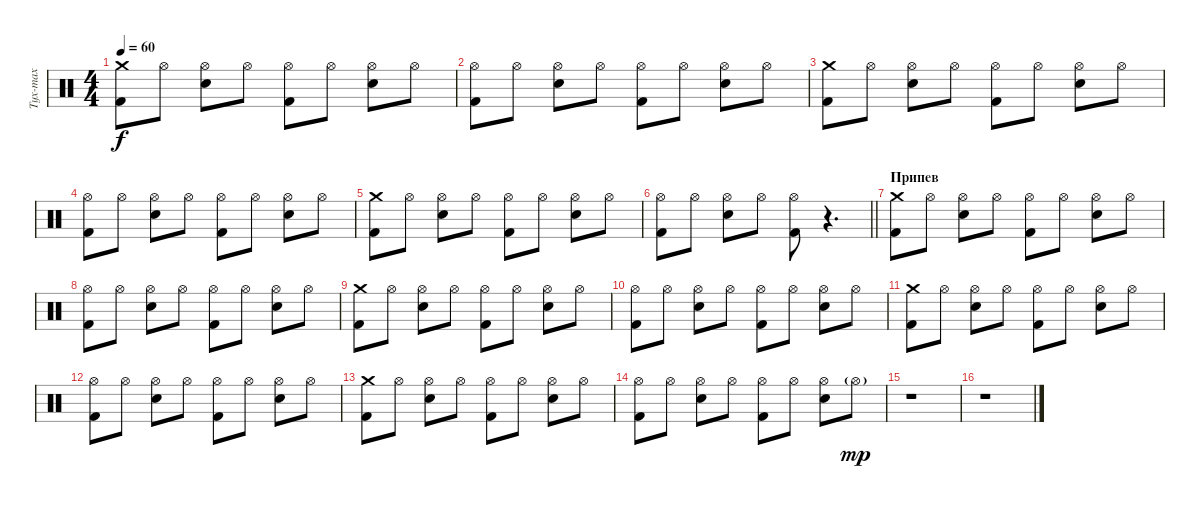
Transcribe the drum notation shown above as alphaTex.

\track ("Тух-тах" "Тух-тах") {instrument percussion}
\staff {score}
\articulation defaults
\ts (4 4)
\tempo 60
\clef neutral
\ks c
("Crash medium (hit)" "Kick (hit) 2").8{dy f} "Hi-Hat (open)".8 ("Hi-Hat (open)" "Snare (hit) 2").8 "Hi-Hat (open)".8 ("Hi-Hat (open)" "Kick (hit) 2").8 "Hi-Hat (open)".8 ("Hi-Hat (open)" "Snare (hit) 2").8 "Hi-Hat (open)".8 |
("Hi-Hat (open)" "Kick (hit) 2").8 "Hi-Hat (open)".8 ("Hi-Hat (open)" "Snare (hit) 2").8 "Hi-Hat (open)".8 ("Hi-Hat (open)" "Kick (hit) 2").8 "Hi-Hat (open)".8 ("Hi-Hat (open)" "Snare (hit) 2").8 "Hi-Hat (open)".8 |
("Crash medium (hit)" "Kick (hit) 2").8 "Hi-Hat (open)".8 ("Hi-Hat (open)" "Snare (hit) 2").8 "Hi-Hat (open)".8 ("Hi-Hat (open)" "Kick (hit) 2").8 "Hi-Hat (open)".8 ("Hi-Hat (open)" "Snare (hit) 2").8 "Hi-Hat (open)".8 |
("Hi-Hat (open)" "Kick (hit) 2").8 "Hi-Hat (open)".8 ("Hi-Hat (open)" "Snare (hit) 2").8 "Hi-Hat (open)".8 ("Hi-Hat (open)" "Kick (hit) 2").8 "Hi-Hat (open)".8 ("Hi-Hat (open)" "Snare (hit) 2").8 "Hi-Hat (open)".8 |
("Crash medium (hit)" "Kick (hit) 2").8 "Hi-Hat (open)".8 ("Hi-Hat (open)" "Snare (hit) 2").8 "Hi-Hat (open)".8 ("Hi-Hat (open)" "Kick (hit) 2").8 "Hi-Hat (open)".8 ("Hi-Hat (open)" "Snare (hit) 2").8 "Hi-Hat (open)".8 |
\barLineRight lightlight
("Hi-Hat (open)" "Kick (hit) 2").8 "Hi-Hat (open)".8 ("Hi-Hat (open)" "Snare (hit) 2").8 "Hi-Hat (open)".8 ("Hi-Hat (open)" "Kick (hit) 2").8 r.4{d} |
\section ("" "Припев")
("Crash medium (hit)" "Kick (hit) 2").8 "Hi-Hat (open)".8 ("Hi-Hat (open)" "Snare (hit) 2").8 "Hi-Hat (open)".8 ("Hi-Hat (open)" "Kick (hit) 2").8 "Hi-Hat (open)".8 ("Hi-Hat (open)" "Snare (hit) 2").8 "Hi-Hat (open)".8 |
("Hi-Hat (open)" "Kick (hit) 2").8 "Hi-Hat (open)".8 ("Hi-Hat (open)" "Snare (hit) 2").8 "Hi-Hat (open)".8 ("Hi-Hat (open)" "Kick (hit) 2").8 "Hi-Hat (open)".8 ("Hi-Hat (open)" "Snare (hit) 2").8 "Hi-Hat (open)".8 |
("Crash medium (hit)" "Kick (hit) 2").8 "Hi-Hat (open)".8 ("Hi-Hat (open)" "Snare (hit) 2").8 "Hi-Hat (open)".8 ("Hi-Hat (open)" "Kick (hit) 2").8 "Hi-Hat (open)".8 ("Hi-Hat (open)" "Snare (hit) 2").8 "Hi-Hat (open)".8 |
("Hi-Hat (open)" "Kick (hit) 2").8 "Hi-Hat (open)".8 ("Hi-Hat (open)" "Snare (hit) 2").8 "Hi-Hat (open)".8 ("Hi-Hat (open)" "Kick (hit) 2").8 "Hi-Hat (open)".8 ("Hi-Hat (open)" "Snare (hit) 2").8 "Hi-Hat (open)".8 |
("Crash medium (hit)" "Kick (hit) 2").8 "Hi-Hat (open)".8 ("Hi-Hat (open)" "Snare (hit) 2").8 "Hi-Hat (open)".8 ("Hi-Hat (open)" "Kick (hit) 2").8 "Hi-Hat (open)".8 ("Hi-Hat (open)" "Snare (hit) 2").8 "Hi-Hat (open)".8 |
("Hi-Hat (open)" "Kick (hit) 2").8 "Hi-Hat (open)".8 ("Hi-Hat (open)" "Snare (hit) 2").8 "Hi-Hat (open)".8 ("Hi-Hat (open)" "Kick (hit) 2").8 "Hi-Hat (open)".8 ("Hi-Hat (open)" "Snare (hit) 2").8 "Hi-Hat (open)".8 |
("Crash medium (hit)" "Kick (hit) 2").8 "Hi-Hat (open)".8 ("Hi-Hat (open)" "Snare (hit) 2").8 "Hi-Hat (open)".8 ("Hi-Hat (open)" "Kick (hit) 2").8 "Hi-Hat (open)".8 ("Hi-Hat (open)" "Snare (hit) 2").8 "Hi-Hat (open)".8 |
("Hi-Hat (open)" "Kick (hit) 2").8 "Hi-Hat (open)".8 ("Hi-Hat (open)" "Snare (hit) 2").8 "Hi-Hat (open)".8 ("Hi-Hat (open)" "Kick (hit) 2").8 "Hi-Hat (open)".8 ("Hi-Hat (open)" "Snare (hit) 2").8 "Hi-Hat (open)"{g}.8{dy mp} |
r.1 |
r.1
